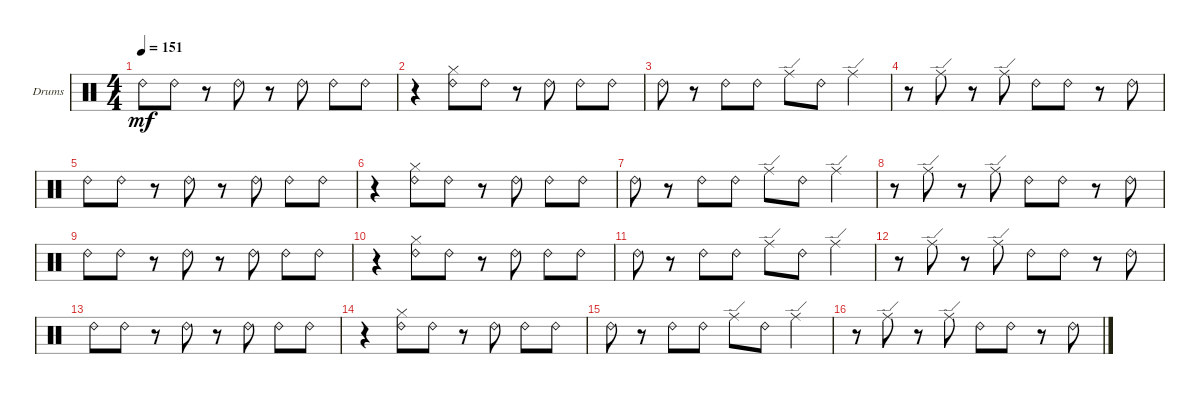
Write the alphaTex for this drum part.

\bracketExtendMode groupsimilarinstruments
\firstSystemTrackNameOrientation horizontal
\otherSystemsTrackNameOrientation horizontal
\track ("Drumkit" "Drums") {instrument percussion}
\staff {score}
\articulation defaults
\ts (4 4)
\tempo 151
\clef neutral
\ks aminor "Ride (bell) 2".8{dy mf} "Ride (bell) 2".8
r.8 "Ride (bell) 2".8 r.8 "Ride (bell) 2".8 "Ride (bell) 2".8 "Ride (bell) 2".8 |
r.4 ("Ride (bell) 2" "Hi-Hat (closed)").8 "Ride (bell) 2".8 r.8 "Ride (bell) 2".8 "Ride (bell) 2".8 "Ride (bell) 2".8 |
"Ride (bell) 2".8 r.8 "Ride (bell) 2".8 "Ride (bell) 2".8 "Ride (edge)".8 "Ride (bell) 2".8 "Ride (edge)".4 |
r.8 "Ride (edge)".8 r.8 "Ride (edge)".8 "Ride (bell) 2".8 "Ride (bell) 2".8 r.8 "Ride (bell) 2".8 |
"Ride (bell) 2".8 "Ride (bell) 2".8 r.8 "Ride (bell) 2".8 r.8 "Ride (bell) 2".8 "Ride (bell) 2".8 "Ride (bell) 2".8 |
r.4 ("Ride (bell) 2" "Hi-Hat (closed)").8 "Ride (bell) 2".8 r.8 "Ride (bell) 2".8 "Ride (bell) 2".8 "Ride (bell) 2".8 |
"Ride (bell) 2".8 r.8 "Ride (bell) 2".8 "Ride (bell) 2".8 "Ride (edge)".8 "Ride (bell) 2".8 "Ride (edge)".4 |
r.8 "Ride (edge)".8 r.8 "Ride (edge)".8 "Ride (bell) 2".8 "Ride (bell) 2".8 r.8 "Ride (bell) 2".8 |
"Ride (bell) 2".8 "Ride (bell) 2".8 r.8 "Ride (bell) 2".8 r.8 "Ride (bell) 2".8 "Ride (bell) 2".8 "Ride (bell) 2".8 |
r.4 ("Ride (bell) 2" "Hi-Hat (closed)").8 "Ride (bell) 2".8 r.8 "Ride (bell) 2".8 "Ride (bell) 2".8 "Ride (bell) 2".8 |
"Ride (bell) 2".8 r.8 "Ride (bell) 2".8 "Ride (bell) 2".8 "Ride (edge)".8 "Ride (bell) 2".8 "Ride (edge)".4 |
r.8 "Ride (edge)".8 r.8 "Ride (edge)".8 "Ride (bell) 2".8 "Ride (bell) 2".8 r.8 "Ride (bell) 2".8 |
"Ride (bell) 2".8 "Ride (bell) 2".8 r.8 "Ride (bell) 2".8 r.8 "Ride (bell) 2".8 "Ride (bell) 2".8 "Ride (bell) 2".8 |
r.4 ("Ride (bell) 2" "Hi-Hat (closed)").8 "Ride (bell) 2".8 r.8 "Ride (bell) 2".8 "Ride (bell) 2".8 "Ride (bell) 2".8 |
"Ride (bell) 2".8 r.8 "Ride (bell) 2".8 "Ride (bell) 2".8 "Ride (edge)".8 "Ride (bell) 2".8 "Ride (edge)".4 |
r.8 "Ride (edge)".8 r.8 "Ride (edge)".8 "Ride (bell) 2".8 "Ride (bell) 2".8 r.8 "Ride (bell) 2".8
